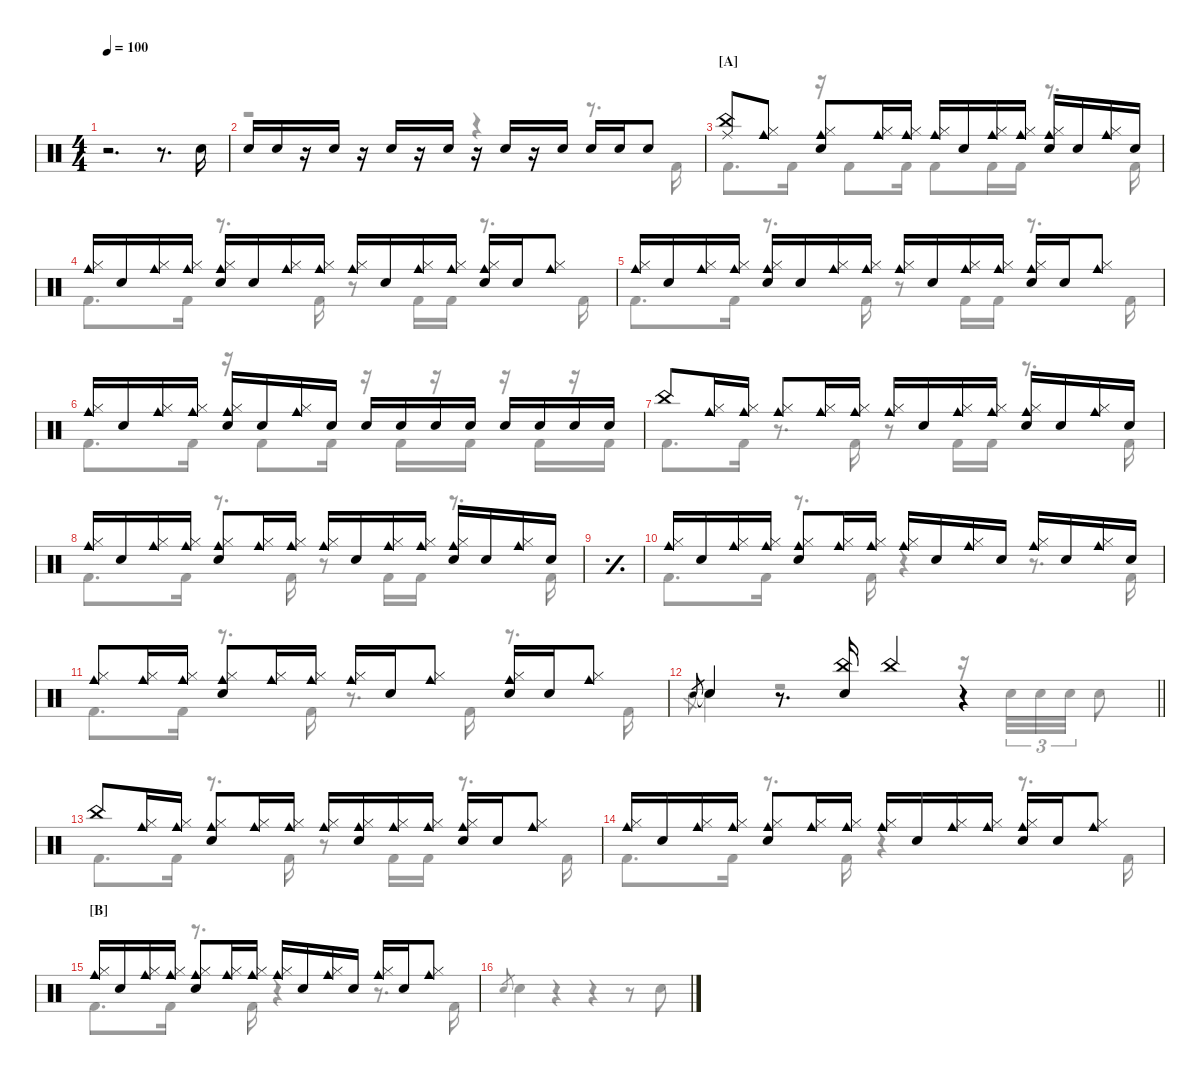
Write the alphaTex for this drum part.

\defaultSystemsLayout 4
\hideDynamics
\bracketExtendMode nobrackets
\singleTrackTrackNamePolicy hidden
\multiTrackTrackNamePolicy hidden
\firstSystemTrackNameMode fullname
\firstSystemTrackNameOrientation horizontal
\otherSystemsTrackNameOrientation horizontal
\track ("John Bonham" "Drums") {defaultSystemsLayout 2 instrument percussion}
\staff {score}
\articulation defaults
\voice
\ts (4 4)
\tempo 100
\clef neutral
\ks c
r.2{d dy mf beam Down} r.8{d beam Down} "Snare (hit) 2".16{beam Down} |
\section ("" "")
"Snare (hit) 2".16{beam Up} "Snare (hit) 2".16{beam Up} r.16{beam Up} "Snare (hit) 2".16{beam Up} r.16{beam Up} "Snare (hit) 2".16{beam Up} r.16{beam Up} "Snare (hit) 2".16{beam Up} r.16{beam Up} "Snare (hit) 2".16{beam Up} r.16{beam Up} "Snare (hit) 2".16{beam Up} "Snare (hit) 2".16{beam Up} "Snare (hit) 2".16{beam Up} "Snare (hit) 2".8{beam Up} |
\section ("A" "")
("China (hit)" "Ride (middle)").8{beam Up} ("Hi-Hat (closed)" "Cowbell medium (hit)").8{beam Up} ("Hi-Hat (closed)" "Snare (hit) 2" "Cowbell medium (hit)").8{beam Up} ("Hi-Hat (closed)" "Cowbell medium (hit)").16{beam Up} ("Hi-Hat (closed)" "Cowbell medium (hit)").16{beam Up} ("Hi-Hat (closed)" "Cowbell medium (hit)").16{beam Up} "Snare (hit) 2".16{beam Up} ("Hi-Hat (closed)" "Cowbell medium (hit)").16{beam Up} ("Hi-Hat (closed)" "Cowbell medium (hit)").16{beam Up} ("Hi-Hat (closed)" "Cowbell medium (hit)" "Snare (hit) 2").16{beam Up} "Snare (hit) 2".16{beam Up} ("Hi-Hat (closed)" "Cowbell medium (hit)").16{beam Up} "Snare (hit) 2".16{beam Up} |
("Hi-Hat (closed)" "Cowbell medium (hit)").16{beam Up} "Snare (hit) 2".16{beam Up} ("Hi-Hat (closed)" "Cowbell medium (hit)").16{beam Up} ("Hi-Hat (closed)" "Cowbell medium (hit)").16{beam Up} ("Hi-Hat (closed)" "Cowbell medium (hit)" "Snare (hit) 2").16{beam Up} "Snare (hit) 2".16{beam Up} ("Hi-Hat (closed)" "Cowbell medium (hit)").16{beam Up} ("Hi-Hat (closed)" "Cowbell medium (hit)").16{beam Up} ("Hi-Hat (closed)" "Cowbell medium (hit)").16{beam Up} "Snare (hit) 2".16{beam Up} ("Hi-Hat (closed)" "Cowbell medium (hit)").16{beam Up} ("Hi-Hat (closed)" "Cowbell medium (hit)").16{beam Up} ("Hi-Hat (closed)" "Cowbell medium (hit)" "Snare (hit) 2").16{beam Up} "Snare (hit) 2".16{beam Up} ("Hi-Hat (closed)" "Cowbell medium (hit)").8{beam Up} |
("Hi-Hat (closed)" "Cowbell medium (hit)").16{beam Up} "Snare (hit) 2".16{beam Up} ("Hi-Hat (closed)" "Cowbell medium (hit)").16{beam Up} ("Hi-Hat (closed)" "Cowbell medium (hit)").16{beam Up} ("Hi-Hat (closed)" "Cowbell medium (hit)" "Snare (hit) 2").16{beam Up} "Snare (hit) 2".16{beam Up} ("Hi-Hat (closed)" "Cowbell medium (hit)").16{beam Up} ("Hi-Hat (closed)" "Cowbell medium (hit)").16{beam Up} ("Hi-Hat (closed)" "Cowbell medium (hit)").16{beam Up} "Snare (hit) 2".16{beam Up} ("Hi-Hat (closed)" "Cowbell medium (hit)").16{beam Up} ("Hi-Hat (closed)" "Cowbell medium (hit)").16{beam Up} ("Hi-Hat (closed)" "Cowbell medium (hit)" "Snare (hit) 2").16{beam Up} "Snare (hit) 2".16{beam Up} ("Hi-Hat (closed)" "Cowbell medium (hit)").8{beam Up} |
("Hi-Hat (closed)" "Cowbell medium (hit)").16{beam Up} "Snare (hit) 2".16{beam Up} ("Hi-Hat (closed)" "Cowbell medium (hit)").16{beam Up} ("Hi-Hat (closed)" "Cowbell medium (hit)").16{beam Up} ("Hi-Hat (closed)" "Cowbell medium (hit)" "Snare (hit) 2").16{beam Up} "Snare (hit) 2".16{beam Up} ("Hi-Hat (closed)" "Cowbell medium (hit)").16{beam Up} "Snare (hit) 2".16{beam Up} "Snare (hit) 2".16{beam Up} "Snare (hit) 2".16{beam Up} "Snare (hit) 2".16{beam Up} "Snare (hit) 2".16{beam Up} "Snare (hit) 2".16{beam Up} "Snare (hit) 2".16{beam Up} "Snare (hit) 2".16{beam Up} "Snare (hit) 2".16{beam Up} |
"China (hit)".8{beam Up} ("Hi-Hat (closed)" "Cowbell medium (hit)").16{beam Up} ("Hi-Hat (closed)" "Cowbell medium (hit)").16{beam Up} ("Hi-Hat (closed)" "Cowbell medium (hit)").8{beam Up} ("Hi-Hat (closed)" "Cowbell medium (hit)").16{beam Up} ("Hi-Hat (closed)" "Cowbell medium (hit)").16{beam Up} ("Hi-Hat (closed)" "Cowbell medium (hit)").16{beam Up} "Snare (hit) 2".16{beam Up} ("Hi-Hat (closed)" "Cowbell medium (hit)").16{beam Up} ("Hi-Hat (closed)" "Cowbell medium (hit)").16{beam Up} ("Hi-Hat (closed)" "Cowbell medium (hit)" "Snare (hit) 2").16{beam Up} "Snare (hit) 2".16{beam Up} ("Hi-Hat (closed)" "Cowbell medium (hit)").16{beam Up} "Snare (hit) 2".16{beam Up} |
("Hi-Hat (closed)" "Cowbell medium (hit)").16{beam Up} "Snare (hit) 2".16{beam Up} ("Hi-Hat (closed)" "Cowbell medium (hit)").16{beam Up} ("Hi-Hat (closed)" "Cowbell medium (hit)").16{beam Up} ("Hi-Hat (closed)" "Cowbell medium (hit)" "Snare (hit) 2").8{beam Up} ("Hi-Hat (closed)" "Cowbell medium (hit)").16{beam Up} ("Hi-Hat (closed)" "Cowbell medium (hit)").16{beam Up} ("Hi-Hat (closed)" "Cowbell medium (hit)").16{beam Up} "Snare (hit) 2".16{beam Up} ("Hi-Hat (closed)" "Cowbell medium (hit)").16{beam Up} ("Hi-Hat (closed)" "Cowbell medium (hit)").16{beam Up} ("Hi-Hat (closed)" "Cowbell medium (hit)" "Snare (hit) 2").16{beam Up} "Snare (hit) 2".16{beam Up} ("Hi-Hat (closed)" "Cowbell medium (hit)").16{beam Up} "Snare (hit) 2".16{beam Up} |
\simile simple
|
\simile none
("Hi-Hat (closed)" "Cowbell medium (hit)").16{beam Up} "Snare (hit) 2".16{beam Up} ("Hi-Hat (closed)" "Cowbell medium (hit)").16{beam Up} ("Hi-Hat (closed)" "Cowbell medium (hit)").16{beam Up} ("Hi-Hat (closed)" "Cowbell medium (hit)" "Snare (hit) 2").8{beam Up} ("Hi-Hat (closed)" "Cowbell medium (hit)").16{beam Up} ("Hi-Hat (closed)" "Cowbell medium (hit)").16{beam Up} ("Hi-Hat (closed)" "Cowbell medium (hit)").16{beam Up} "Snare (hit) 2".16{beam Up} ("Hi-Hat (closed)" "Cowbell medium (hit)").16{beam Up} "Snare (hit) 2".16{beam Up} ("Hi-Hat (closed)" "Cowbell medium (hit)").16{beam Up} "Snare (hit) 2".16{beam Up} ("Hi-Hat (closed)" "Cowbell medium (hit)").16{beam Up} "Snare (hit) 2".16{beam Up} |
("Hi-Hat (closed)" "Cowbell medium (hit)").8{beam Up} ("Hi-Hat (closed)" "Cowbell medium (hit)").16{beam Up} ("Hi-Hat (closed)" "Cowbell medium (hit)").16{beam Up} ("Hi-Hat (closed)" "Cowbell medium (hit)" "Snare (hit) 2").8{beam Up} ("Hi-Hat (closed)" "Cowbell medium (hit)").16{beam Up} ("Hi-Hat (closed)" "Cowbell medium (hit)").16{beam Up} ("Hi-Hat (closed)" "Cowbell medium (hit)").16{beam Up} "Snare (hit) 2".16{beam Up} ("Hi-Hat (closed)" "Cowbell medium (hit)").8{beam Up} ("Hi-Hat (closed)" "Cowbell medium (hit)" "Snare (hit) 2").16{beam Up} "Snare (hit) 2".16{beam Up} ("Hi-Hat (closed)" "Cowbell medium (hit)").8{beam Up} |
\barLineRight lightlight "Snare (hit) 2".8{gr beam Up} "Snare (hit) 2"{t}.4{beam Up}
r.8{d beam Up} ("China (hit)" "Snare (hit) 2").16{beam Up} "China (hit)".4{beam Up} r.4{beam Up} |
"China (hit)".8{beam Up} ("Hi-Hat (closed)" "Cowbell medium (hit)").16{beam Up} ("Hi-Hat (closed)" "Cowbell medium (hit)").16{beam Up} ("Hi-Hat (closed)" "Cowbell medium (hit)" "Snare (hit) 2").8{beam Up} ("Hi-Hat (closed)" "Cowbell medium (hit)").16{beam Up} ("Hi-Hat (closed)" "Cowbell medium (hit)").16{beam Up} ("Hi-Hat (closed)" "Cowbell medium (hit)").16{beam Up} ("Hi-Hat (closed)" "Cowbell medium (hit)" "Snare (hit) 2").16{beam Up} ("Hi-Hat (closed)" "Cowbell medium (hit)").16{beam Up} ("Hi-Hat (closed)" "Cowbell medium (hit)").16{beam Up} ("Hi-Hat (closed)" "Cowbell medium (hit)" "Snare (hit) 2").16{beam Up} "Snare (hit) 2".16{beam Up} ("Hi-Hat (closed)" "Cowbell medium (hit)").8{beam Up} |
("Hi-Hat (closed)" "Cowbell medium (hit)").16{beam Up} "Snare (hit) 2".16{beam Up} ("Hi-Hat (closed)" "Cowbell medium (hit)").16{beam Up} ("Hi-Hat (closed)" "Cowbell medium (hit)").16{beam Up} ("Hi-Hat (closed)" "Cowbell medium (hit)" "Snare (hit) 2").8{beam Up} ("Hi-Hat (closed)" "Cowbell medium (hit)").16{beam Up} ("Hi-Hat (closed)" "Cowbell medium (hit)").16{beam Up} ("Hi-Hat (closed)" "Cowbell medium (hit)").16{beam Up} "Snare (hit) 2".16{beam Up} ("Hi-Hat (closed)" "Cowbell medium (hit)").16{beam Up} ("Hi-Hat (closed)" "Cowbell medium (hit)").16{beam Up} ("Hi-Hat (closed)" "Cowbell medium (hit)" "Snare (hit) 2").16{beam Up} "Snare (hit) 2".16{beam Up} ("Hi-Hat (closed)" "Cowbell medium (hit)").8{beam Up} |
\section ("B" "")
("Hi-Hat (closed)" "Cowbell medium (hit)").16{beam Up} "Snare (hit) 2".16{beam Up} ("Hi-Hat (closed)" "Cowbell medium (hit)").16{beam Up} ("Hi-Hat (closed)" "Cowbell medium (hit)").16{beam Up} ("Hi-Hat (closed)" "Cowbell medium (hit)" "Snare (hit) 2").8{beam Up} ("Hi-Hat (closed)" "Cowbell medium (hit)").16{beam Up} ("Hi-Hat (closed)" "Cowbell medium (hit)").16{beam Up} ("Hi-Hat (closed)" "Cowbell medium (hit)").16{beam Up} "Snare (hit) 2".16{beam Up} ("Hi-Hat (closed)" "Cowbell medium (hit)").16{beam Up} "Snare (hit) 2".16{beam Up} ("Hi-Hat (closed)" "Cowbell medium (hit)").16{beam Up} "Snare (hit) 2".16{beam Up} ("Hi-Hat (closed)" "Cowbell medium (hit)").8{beam Up} |
\voice
\clef neutral
\ottava regular
\simile none
\ks c
|
r.2{beam Down} r.4{beam Down} r.8{d beam Down} "Kick (hit) 2".16{beam Down} |
"Kick (hit) 2".8{d beam Down} "Kick (hit) 2".16{beam Down} r.16{beam Down} "Kick (hit) 2".8{beam Down} "Kick (hit) 2".16{beam Down} "Kick (hit) 2".8{beam Down} "Kick (hit) 2".16{beam Down} "Kick (hit) 2".16{beam Down} r.8{d beam Down} "Kick (hit) 2".16{beam Down} |
"Kick (hit) 2".8{d beam Down} "Kick (hit) 2".16{beam Down} r.8{d beam Down} "Kick (hit) 2".16{beam Down} r.8{beam Down} "Kick (hit) 2".16{beam Down} "Kick (hit) 2".16{beam Down} r.8{d beam Down} "Kick (hit) 2".16{beam Down} |
"Kick (hit) 2".8{d beam Down} "Kick (hit) 2".16{beam Down} r.8{d beam Down} "Kick (hit) 2".16{beam Down} r.8{beam Down} "Kick (hit) 2".16{beam Down} "Kick (hit) 2".16{beam Down} r.8{d beam Down} "Kick (hit) 2".16{beam Down} |
"Kick (hit) 2".8{d beam Down} "Kick (hit) 2".16{beam Down} r.16{beam Down} "Kick (hit) 2".8{beam Down} "Kick (hit) 2".16{beam Down} r.16{beam Down} "Kick (hit) 2".16{beam Down} r.16{beam Down} "Kick (hit) 2".16{beam Down} r.16{beam Down} "Kick (hit) 2".16{beam Down} r.16{beam Down} "Kick (hit) 2".16{beam Down} |
"Kick (hit) 2".8{d beam Down} "Kick (hit) 2".16{beam Down} r.8{d beam Down} "Kick (hit) 2".16{beam Down} r.8{beam Down} "Kick (hit) 2".16{beam Down} "Kick (hit) 2".16{beam Down} r.8{d beam Down} "Kick (hit) 2".16{beam Down} |
"Kick (hit) 2".8{d beam Down} "Kick (hit) 2".16{beam Down} r.8{d beam Down} "Kick (hit) 2".16{beam Down} r.8{beam Down} "Kick (hit) 2".16{beam Down} "Kick (hit) 2".16{beam Down} r.8{d beam Down} "Kick (hit) 2".16{beam Down} |
\simile simple
|
\simile none "Kick (hit) 2".8{d beam Down} "Kick (hit) 2".16{beam Down}
r.8{d beam Down} "Kick (hit) 2".16{beam Down} r.4{beam Down} r.8{d beam Down} "Kick (hit) 2".16{beam Down} |
"Kick (hit) 2".8{d beam Down} "Kick (hit) 2".16{beam Down} r.8{d beam Down} "Kick (hit) 2".16{beam Down} r.8{d beam Down} "Kick (hit) 2".16{beam Down} r.8{d beam Down} "Kick (hit) 2".16{beam Down} |
\barLineRight lightlight "Snare (hit) 2".8{gr beam Down} "Snare (hit) 2"{t}.4{beam Down}
r.2{beam Down} r.16{beam Down} "Snare (hit) 2".32{tu (3 2) beam Down} "Snare (hit) 2".32{tu (3 2) beam Down} "Snare (hit) 2".32{tu (3 2) beam Down} "Snare (hit) 2".8{beam Down} |
"Kick (hit) 2".8{d beam Down} "Kick (hit) 2".16{beam Down} r.8{d beam Down} "Kick (hit) 2".16{beam Down} r.8{beam Down} "Kick (hit) 2".16{beam Down} "Kick (hit) 2".16{beam Down} r.8{d beam Down} "Kick (hit) 2".16{beam Down} |
"Kick (hit) 2".8{d beam Down} "Kick (hit) 2".16{beam Down} r.8{d beam Down} "Kick (hit) 2".16{beam Down} r.4{beam Down} r.8{d beam Down} "Kick (hit) 2".16{beam Down} |
"Kick (hit) 2".8{d beam Down} "Kick (hit) 2".16{beam Down} r.8{d beam Down} "Kick (hit) 2".16{beam Down} r.4{beam Down} r.8{d beam Down} "Kick (hit) 2".16{beam Down} |
"Snare (hit) 2".8{gr beam Up} "Snare (hit) 2".4{beam Down} r.4{beam Down} r.4{beam Down} r.8{beam Down} "Snare (hit) 2".8{beam Down}
